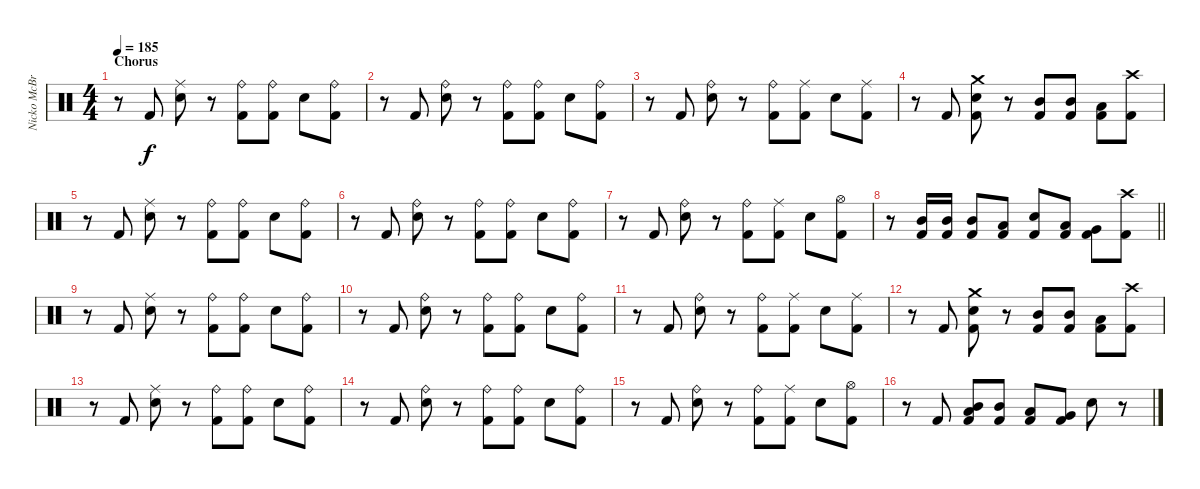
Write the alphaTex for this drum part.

\track ("Nicko McBrain" "Nicko McBr") {instrument percussion}
\staff {score}
\articulation defaults
\ts (4 4)
\section ("" "Chorus")
\tempo 185
\clef neutral
\ks c
r.8{dy f} "Kick (hit) 2".8 ("Ride (middle)" "Snare (hit) 2").8 r.8 ("Ride (bell)" "Kick (hit) 2").8 ("Ride (bell)" "Kick (hit) 2").8 "Snare (hit) 2".8 ("Ride (bell)" "Kick (hit) 2").8 |
r.8 "Kick (hit) 2".8 ("Ride (bell)" "Snare (hit) 2").8 r.8 ("Ride (bell)" "Kick (hit) 2").8 ("Ride (bell)" "Kick (hit) 2").8 "Snare (hit) 2".8 ("Ride (bell)" "Kick (hit) 2").8 |
r.8 "Kick (hit) 2".8 ("Ride (bell)" "Snare (hit) 2").8 r.8 ("Ride (bell)" "Kick (hit) 2").8 ("Ride (middle)" "Kick (hit) 2").8 "Snare (hit) 2".8 ("Ride (middle)" "Kick (hit) 2").8 |
r.8 "Kick (hit) 2".8 ("Crash medium (hit)" "Snare (hit) 2" "Kick (hit) 2").8 r.8 ("Mid Tom (hit)" "Kick (hit) 2").8 ("Mid Tom (hit)" "Kick (hit) 2").8 ("Low Tom (hit)" "Kick (hit) 2").8 ("Crash high (hit)" "Kick (hit) 2").8 |
r.8 "Kick (hit) 2".8 ("Ride (middle)" "Snare (hit) 2").8 r.8 ("Ride (bell)" "Kick (hit) 2").8 ("Ride (bell)" "Kick (hit) 2").8 "Snare (hit) 2".8 ("Ride (bell)" "Kick (hit) 2").8 |
r.8 "Kick (hit) 2".8 ("Ride (bell)" "Snare (hit) 2").8 r.8 ("Ride (bell)" "Kick (hit) 2").8 ("Ride (bell)" "Kick (hit) 2").8 "Snare (hit) 2".8 ("Ride (bell)" "Kick (hit) 2").8 |
r.8 "Kick (hit) 2".8 ("Ride (bell)" "Snare (hit) 2").8 r.8 ("Ride (bell)" "Kick (hit) 2").8 ("Ride (middle)" "Kick (hit) 2").8 "Snare (hit) 2".8 ("Hi-Hat (open)" "Kick (hit) 2").8 |
\barLineRight lightlight
r.8 ("Mid Tom (hit)" "Kick (hit) 2").16 ("Mid Tom (hit)" "Kick (hit) 2").16 ("Mid Tom (hit)" "Kick (hit) 2").8 ("Low Tom (hit)" "Kick (hit) 2").8 ("Snare (hit) 2" "Kick (hit) 2").8 ("Low Tom (hit)" "Kick (hit) 2").8 ("Very Low Tom (hit)" "Kick (hit) 2").8 ("Crash high (hit)" "Kick (hit) 2").8 |
r.8 "Kick (hit) 2".8 ("Ride (middle)" "Snare (hit) 2").8 r.8 ("Ride (bell)" "Kick (hit) 2").8 ("Ride (bell)" "Kick (hit) 2").8 "Snare (hit) 2".8 ("Ride (bell)" "Kick (hit) 2").8 |
r.8 "Kick (hit) 2".8 ("Ride (bell)" "Snare (hit) 2").8 r.8 ("Ride (bell)" "Kick (hit) 2").8 ("Ride (bell)" "Kick (hit) 2").8 "Snare (hit) 2".8 ("Ride (bell)" "Kick (hit) 2").8 |
r.8 "Kick (hit) 2".8 ("Ride (bell)" "Snare (hit) 2").8 r.8 ("Ride (bell)" "Kick (hit) 2").8 ("Ride (middle)" "Kick (hit) 2").8 "Snare (hit) 2".8 ("Ride (middle)" "Kick (hit) 2").8 |
r.8 "Kick (hit) 2".8 ("Crash medium (hit)" "Snare (hit) 2" "Kick (hit) 2").8 r.8 ("Mid Tom (hit)" "Kick (hit) 2").8 ("Mid Tom (hit)" "Kick (hit) 2").8 ("Low Tom (hit)" "Kick (hit) 2").8 ("Crash high (hit)" "Kick (hit) 2").8 |
r.8 "Kick (hit) 2".8 ("Ride (middle)" "Snare (hit) 2").8 r.8 ("Ride (bell)" "Kick (hit) 2").8 ("Ride (bell)" "Kick (hit) 2").8 "Snare (hit) 2".8 ("Ride (bell)" "Kick (hit) 2").8 |
r.8 "Kick (hit) 2".8 ("Ride (bell)" "Snare (hit) 2").8 r.8 ("Ride (bell)" "Kick (hit) 2").8 ("Ride (bell)" "Kick (hit) 2").8 "Snare (hit) 2".8 ("Ride (bell)" "Kick (hit) 2").8 |
r.8 "Kick (hit) 2".8 ("Ride (bell)" "Snare (hit) 2").8 r.8 ("Ride (bell)" "Kick (hit) 2").8 ("Ride (middle)" "Kick (hit) 2").8 "Snare (hit) 2".8 ("Hi-Hat (open)" "Kick (hit) 2").8 |
r.8 "Kick (hit) 2".8 ("Mid Tom (hit)" "Low Floor Tom (hit)" "Kick (hit) 2").8 ("Mid Tom (hit)" "Kick (hit) 2").8 ("Low Tom (hit)" "Kick (hit) 2").8 ("Very Low Tom (hit)" "Kick (hit) 2").8 "Snare (hit) 2".8 r.8
